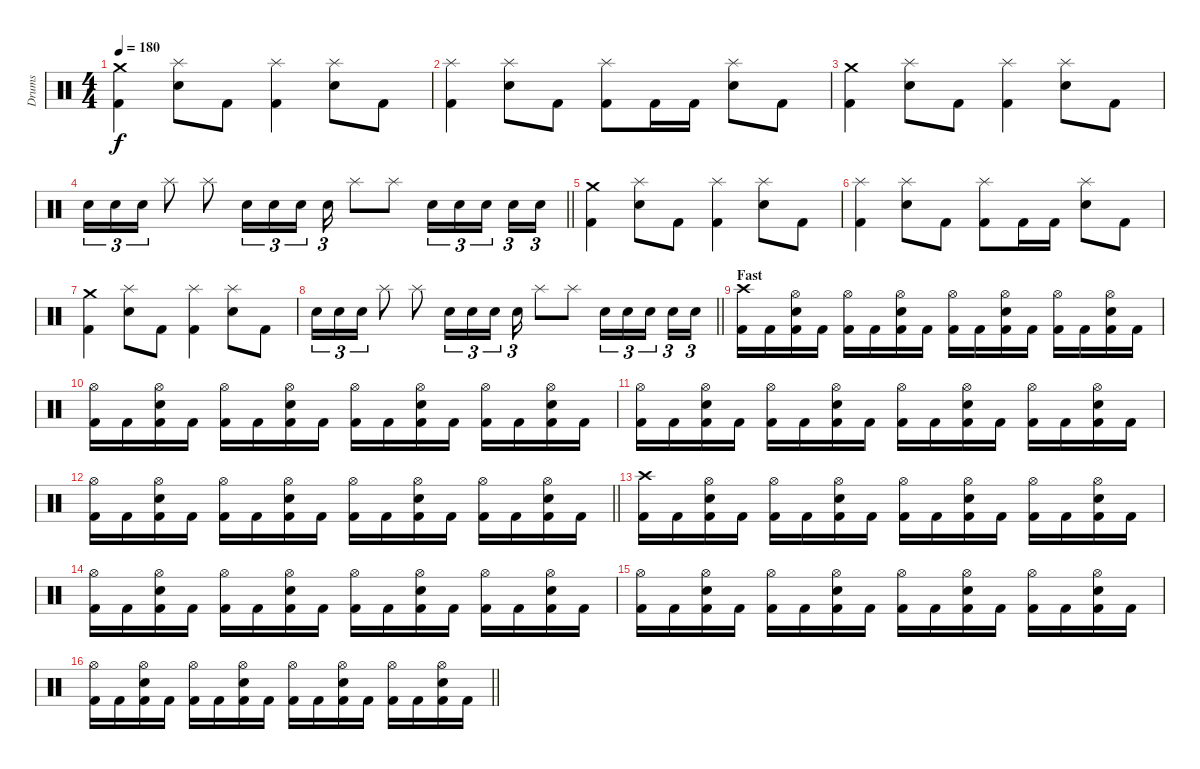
\track ("Drums" "Drums") {instrument percussion}
\staff {score}
\articulation defaults
\ts (4 4)
\tempo 180
\clef neutral
\ks c
("Crash medium (hit)" "Kick (hit) 2").4{dy f} ("Splash (hit)" "Snare (hit) 2").8 "Kick (hit) 2".8 ("Splash (hit)" "Kick (hit) 2").4 ("Splash (hit)" "Snare (hit) 2").8 "Kick (hit) 2".8 |
("Splash (hit)" "Kick (hit) 2").4 ("Splash (hit)" "Snare (hit) 2").8 "Kick (hit) 2".8 ("Splash (hit)" "Kick (hit) 2").8 "Kick (hit) 2".16 "Kick (hit) 2".16 ("Splash (hit)" "Snare (hit) 2").8 "Kick (hit) 2".8 |
("Crash medium (hit)" "Kick (hit) 2").4 ("Splash (hit)" "Snare (hit) 2").8 "Kick (hit) 2".8 ("Splash (hit)" "Kick (hit) 2").4 ("Splash (hit)" "Snare (hit) 2").8 "Kick (hit) 2".8 |
\barLineRight lightlight "Snare (hit) 2".16{tu (3 2)} "Snare (hit) 2".16{tu (3 2)} "Snare (hit) 2".16{tu (3 2)} "Splash (hit)".8 "Splash (hit)".8 "Snare (hit) 2".16{tu (3 2)} "Snare (hit) 2".16{tu (3 2)} "Snare (hit) 2".16{tu (3 2)} "Snare (hit) 2".16{tu (3 2)} "Splash (hit)".8 "Splash (hit)".8 "Snare (hit) 2".16{tu (3 2)} "Snare (hit) 2".16{tu (3 2)} "Snare (hit) 2".16{tu (3 2) beam splitsecondary} "Snare (hit) 2".16{tu (3 2)} "Snare (hit) 2".16{tu (3 2)}
|
("Crash medium (hit)" "Kick (hit) 2").4 ("Splash (hit)" "Snare (hit) 2").8 "Kick (hit) 2".8 ("Splash (hit)" "Kick (hit) 2").4 ("Splash (hit)" "Snare (hit) 2").8 "Kick (hit) 2".8 |
("Splash (hit)" "Kick (hit) 2").4 ("Splash (hit)" "Snare (hit) 2").8 "Kick (hit) 2".8 ("Splash (hit)" "Kick (hit) 2").8 "Kick (hit) 2".16 "Kick (hit) 2".16 ("Splash (hit)" "Snare (hit) 2").8 "Kick (hit) 2".8 |
("Crash medium (hit)" "Kick (hit) 2").4 ("Splash (hit)" "Snare (hit) 2").8 "Kick (hit) 2".8 ("Splash (hit)" "Kick (hit) 2").4 ("Splash (hit)" "Snare (hit) 2").8 "Kick (hit) 2".8 |
\barLineRight lightlight "Snare (hit) 2".16{tu (3 2)} "Snare (hit) 2".16{tu (3 2)} "Snare (hit) 2".16{tu (3 2)} "Splash (hit)".8 "Splash (hit)".8 "Snare (hit) 2".16{tu (3 2)} "Snare (hit) 2".16{tu (3 2)} "Snare (hit) 2".16{tu (3 2)} "Snare (hit) 2".16{tu (3 2)} "Splash (hit)".8 "Splash (hit)".8 "Snare (hit) 2".16{tu (3 2)} "Snare (hit) 2".16{tu (3 2)} "Snare (hit) 2".16{tu (3 2) beam splitsecondary} "Snare (hit) 2".16{tu (3 2)} "Snare (hit) 2".16{tu (3 2)}
|
\section ("" "Fast")
("Crash high (hit)" "Kick (hit) 2").16 "Kick (hit) 2".16 ("Hi-Hat (open)" "Snare (hit) 2" "Kick (hit) 2").16 "Kick (hit) 2".16 ("Hi-Hat (open)" "Kick (hit) 2").16 "Kick (hit) 2".16 ("Hi-Hat (open)" "Snare (hit) 2" "Kick (hit) 2").16 "Kick (hit) 2".16 ("Hi-Hat (open)" "Kick (hit) 2").16 "Kick (hit) 2".16 ("Hi-Hat (open)" "Snare (hit) 2" "Kick (hit) 2").16 "Kick (hit) 2".16 ("Hi-Hat (open)" "Kick (hit) 2").16 "Kick (hit) 2".16 ("Hi-Hat (open)" "Snare (hit) 2" "Kick (hit) 2").16 "Kick (hit) 2".16 |
("Hi-Hat (open)" "Kick (hit) 2").16 "Kick (hit) 2".16 ("Hi-Hat (open)" "Snare (hit) 2" "Kick (hit) 2").16 "Kick (hit) 2".16 ("Hi-Hat (open)" "Kick (hit) 2").16 "Kick (hit) 2".16 ("Hi-Hat (open)" "Snare (hit) 2" "Kick (hit) 2").16 "Kick (hit) 2".16 ("Hi-Hat (open)" "Kick (hit) 2").16 "Kick (hit) 2".16 ("Hi-Hat (open)" "Snare (hit) 2" "Kick (hit) 2").16 "Kick (hit) 2".16 ("Hi-Hat (open)" "Kick (hit) 2").16 "Kick (hit) 2".16 ("Hi-Hat (open)" "Snare (hit) 2" "Kick (hit) 2").16 "Kick (hit) 2".16 |
("Hi-Hat (open)" "Kick (hit) 2").16 "Kick (hit) 2".16 ("Hi-Hat (open)" "Snare (hit) 2" "Kick (hit) 2").16 "Kick (hit) 2".16 ("Hi-Hat (open)" "Kick (hit) 2").16 "Kick (hit) 2".16 ("Hi-Hat (open)" "Snare (hit) 2" "Kick (hit) 2").16 "Kick (hit) 2".16 ("Hi-Hat (open)" "Kick (hit) 2").16 "Kick (hit) 2".16 ("Hi-Hat (open)" "Snare (hit) 2" "Kick (hit) 2").16 "Kick (hit) 2".16 ("Hi-Hat (open)" "Kick (hit) 2").16 "Kick (hit) 2".16 ("Hi-Hat (open)" "Snare (hit) 2" "Kick (hit) 2").16 "Kick (hit) 2".16 |
\barLineRight lightlight
("Hi-Hat (open)" "Kick (hit) 2").16 "Kick (hit) 2".16 ("Hi-Hat (open)" "Snare (hit) 2" "Kick (hit) 2").16 "Kick (hit) 2".16 ("Hi-Hat (open)" "Kick (hit) 2").16 "Kick (hit) 2".16 ("Hi-Hat (open)" "Snare (hit) 2" "Kick (hit) 2").16 "Kick (hit) 2".16 ("Hi-Hat (open)" "Kick (hit) 2").16 "Kick (hit) 2".16 ("Hi-Hat (open)" "Snare (hit) 2" "Kick (hit) 2").16 "Kick (hit) 2".16 ("Hi-Hat (open)" "Kick (hit) 2").16 "Kick (hit) 2".16 ("Hi-Hat (open)" "Snare (hit) 2" "Kick (hit) 2").16 "Kick (hit) 2".16 |
("Crash high (hit)" "Kick (hit) 2").16 "Kick (hit) 2".16 ("Hi-Hat (open)" "Snare (hit) 2" "Kick (hit) 2").16 "Kick (hit) 2".16 ("Hi-Hat (open)" "Kick (hit) 2").16 "Kick (hit) 2".16 ("Hi-Hat (open)" "Snare (hit) 2" "Kick (hit) 2").16 "Kick (hit) 2".16 ("Hi-Hat (open)" "Kick (hit) 2").16 "Kick (hit) 2".16 ("Hi-Hat (open)" "Snare (hit) 2" "Kick (hit) 2").16 "Kick (hit) 2".16 ("Hi-Hat (open)" "Kick (hit) 2").16 "Kick (hit) 2".16 ("Hi-Hat (open)" "Snare (hit) 2" "Kick (hit) 2").16 "Kick (hit) 2".16 |
("Hi-Hat (open)" "Kick (hit) 2").16 "Kick (hit) 2".16 ("Hi-Hat (open)" "Snare (hit) 2" "Kick (hit) 2").16 "Kick (hit) 2".16 ("Hi-Hat (open)" "Kick (hit) 2").16 "Kick (hit) 2".16 ("Hi-Hat (open)" "Snare (hit) 2" "Kick (hit) 2").16 "Kick (hit) 2".16 ("Hi-Hat (open)" "Kick (hit) 2").16 "Kick (hit) 2".16 ("Hi-Hat (open)" "Snare (hit) 2" "Kick (hit) 2").16 "Kick (hit) 2".16 ("Hi-Hat (open)" "Kick (hit) 2").16 "Kick (hit) 2".16 ("Hi-Hat (open)" "Snare (hit) 2" "Kick (hit) 2").16 "Kick (hit) 2".16 |
("Hi-Hat (open)" "Kick (hit) 2").16 "Kick (hit) 2".16 ("Hi-Hat (open)" "Snare (hit) 2" "Kick (hit) 2").16 "Kick (hit) 2".16 ("Hi-Hat (open)" "Kick (hit) 2").16 "Kick (hit) 2".16 ("Hi-Hat (open)" "Snare (hit) 2" "Kick (hit) 2").16 "Kick (hit) 2".16 ("Hi-Hat (open)" "Kick (hit) 2").16 "Kick (hit) 2".16 ("Hi-Hat (open)" "Snare (hit) 2" "Kick (hit) 2").16 "Kick (hit) 2".16 ("Hi-Hat (open)" "Kick (hit) 2").16 "Kick (hit) 2".16 ("Hi-Hat (open)" "Snare (hit) 2" "Kick (hit) 2").16 "Kick (hit) 2".16 |
\barLineRight lightlight
("Hi-Hat (open)" "Kick (hit) 2").16 "Kick (hit) 2".16 ("Hi-Hat (open)" "Snare (hit) 2" "Kick (hit) 2").16 "Kick (hit) 2".16 ("Hi-Hat (open)" "Kick (hit) 2").16 "Kick (hit) 2".16 ("Hi-Hat (open)" "Snare (hit) 2" "Kick (hit) 2").16 "Kick (hit) 2".16 ("Hi-Hat (open)" "Kick (hit) 2").16 "Kick (hit) 2".16 ("Hi-Hat (open)" "Snare (hit) 2" "Kick (hit) 2").16 "Kick (hit) 2".16 ("Hi-Hat (open)" "Kick (hit) 2").16 "Kick (hit) 2".16 ("Hi-Hat (open)" "Snare (hit) 2" "Kick (hit) 2").16 "Kick (hit) 2".16
